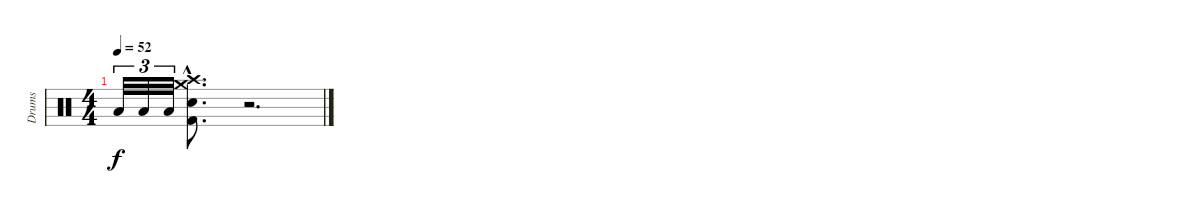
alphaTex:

\track ("Drums" "Drums") {instrument percussion}
\staff {score}
\articulation defaults
\ts (4 4)
\tempo 52
\clef neutral
\ks c "Low Floor Tom (hit)".32{tu (3 2) dy f} "Low Floor Tom (hit)".32{tu (3 2)} "Low Floor Tom (hit)".32{tu (3 2)}
("Crash medium (hit)"{hac} "Crash high (hit)"{hac} "Electric Snare (hit)"{hac} "Kick (hit) 2"{hac}).8{d} r.2{d}
